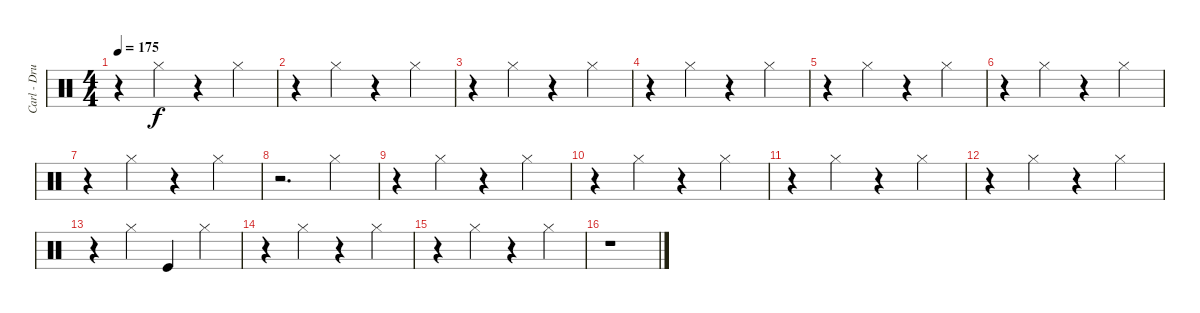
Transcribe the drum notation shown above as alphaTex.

\track ("Carl - Drums I" "Carl - Dru") {instrument percussion}
\staff {score}
\articulation defaults
\ts (4 4)
\tempo 175
\clef neutral
\ks c
r.4{dy f} "Hi-Hat (closed)".4 r.4 "Hi-Hat (closed)".4 |
r.4 "Hi-Hat (closed)".4 r.4 "Hi-Hat (closed)".4 |
r.4 "Hi-Hat (closed)".4 r.4 "Hi-Hat (closed)".4 |
r.4 "Hi-Hat (closed)".4 r.4 "Hi-Hat (closed)".4 |
r.4 "Hi-Hat (closed)".4 r.4 "Hi-Hat (closed)".4 |
r.4 "Hi-Hat (closed)".4 r.4 "Hi-Hat (closed)".4 |
r.4 "Hi-Hat (closed)".4 r.4 "Hi-Hat (closed)".4 |
r.2{d} "Hi-Hat (closed)".4 |
r.4 "Hi-Hat (closed)".4 r.4 "Hi-Hat (closed)".4 |
r.4 "Hi-Hat (closed)".4 r.4 "Hi-Hat (closed)".4 |
r.4 "Hi-Hat (closed)".4 r.4 "Hi-Hat (closed)".4 |
r.4 "Hi-Hat (closed)".4 r.4 "Hi-Hat (closed)".4 |
r.4 "Hi-Hat (closed)".4 "Kick (hit)".4 "Hi-Hat (closed)".4 |
r.4 "Hi-Hat (closed)".4 r.4 "Hi-Hat (closed)".4 |
r.4 "Hi-Hat (closed)".4 r.4 "Hi-Hat (closed)".4 |
r.1
